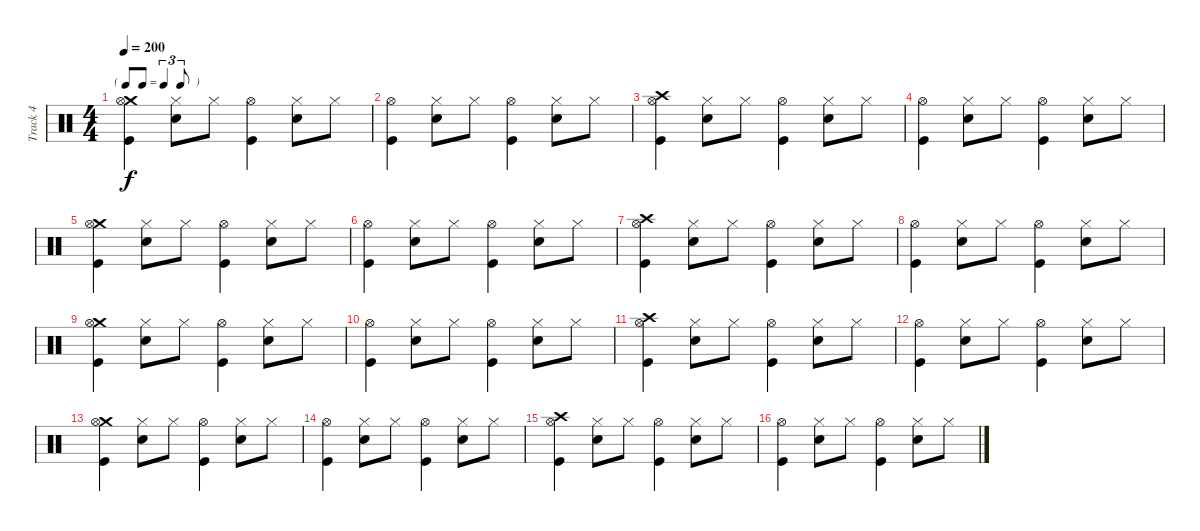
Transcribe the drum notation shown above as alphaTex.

\track ("Track 4" "Track 4") {instrument percussion}
\staff {score}
\articulation defaults
\ts (4 4)
\tf triplet8th
\tempo 200
\clef neutral
\ks c
("Crash medium (hit)" "Hi-Hat (open)" "Kick (hit)").4{dy f} ("Hi-Hat (closed)" "Electric Snare (hit)").8 "Hi-Hat (closed)".8 ("Hi-Hat (open)" "Kick (hit)").4 ("Hi-Hat (closed)" "Electric Snare (hit)").8 "Hi-Hat (closed)".8 |
("Hi-Hat (open)" "Kick (hit)").4 ("Hi-Hat (closed)" "Electric Snare (hit)").8 "Hi-Hat (closed)".8 ("Hi-Hat (open)" "Kick (hit)").4 ("Hi-Hat (closed)" "Electric Snare (hit)").8 "Hi-Hat (closed)".8 |
("Crash high (hit)" "Hi-Hat (open)" "Kick (hit)").4 ("Hi-Hat (closed)" "Electric Snare (hit)").8 "Hi-Hat (closed)".8 ("Hi-Hat (open)" "Kick (hit)").4 ("Hi-Hat (closed)" "Electric Snare (hit)").8 "Hi-Hat (closed)".8 |
("Hi-Hat (open)" "Kick (hit)").4 ("Hi-Hat (closed)" "Electric Snare (hit)").8 "Hi-Hat (closed)".8 ("Hi-Hat (open)" "Kick (hit)").4 ("Hi-Hat (closed)" "Electric Snare (hit)").8 "Hi-Hat (closed)".8 |
("Crash medium (hit)" "Hi-Hat (open)" "Kick (hit)").4 ("Hi-Hat (closed)" "Electric Snare (hit)").8 "Hi-Hat (closed)".8 ("Hi-Hat (open)" "Kick (hit)").4 ("Hi-Hat (closed)" "Electric Snare (hit)").8 "Hi-Hat (closed)".8 |
("Hi-Hat (open)" "Kick (hit)").4 ("Hi-Hat (closed)" "Electric Snare (hit)").8 "Hi-Hat (closed)".8 ("Hi-Hat (open)" "Kick (hit)").4 ("Hi-Hat (closed)" "Electric Snare (hit)").8 "Hi-Hat (closed)".8 |
("Crash high (hit)" "Hi-Hat (open)" "Kick (hit)").4 ("Hi-Hat (closed)" "Electric Snare (hit)").8 "Hi-Hat (closed)".8 ("Hi-Hat (open)" "Kick (hit)").4 ("Hi-Hat (closed)" "Electric Snare (hit)").8 "Hi-Hat (closed)".8 |
("Hi-Hat (open)" "Kick (hit)").4 ("Hi-Hat (closed)" "Electric Snare (hit)").8 "Hi-Hat (closed)".8 ("Hi-Hat (open)" "Kick (hit)").4 ("Hi-Hat (closed)" "Electric Snare (hit)").8 "Hi-Hat (closed)".8 |
("Crash medium (hit)" "Hi-Hat (open)" "Kick (hit)").4 ("Hi-Hat (closed)" "Electric Snare (hit)").8 "Hi-Hat (closed)".8 ("Hi-Hat (open)" "Kick (hit)").4 ("Hi-Hat (closed)" "Electric Snare (hit)").8 "Hi-Hat (closed)".8 |
("Hi-Hat (open)" "Kick (hit)").4 ("Hi-Hat (closed)" "Electric Snare (hit)").8 "Hi-Hat (closed)".8 ("Hi-Hat (open)" "Kick (hit)").4 ("Hi-Hat (closed)" "Electric Snare (hit)").8 "Hi-Hat (closed)".8 |
("Crash high (hit)" "Hi-Hat (open)" "Kick (hit)").4 ("Hi-Hat (closed)" "Electric Snare (hit)").8 "Hi-Hat (closed)".8 ("Hi-Hat (open)" "Kick (hit)").4 ("Hi-Hat (closed)" "Electric Snare (hit)").8 "Hi-Hat (closed)".8 |
("Hi-Hat (open)" "Kick (hit)").4 ("Hi-Hat (closed)" "Electric Snare (hit)").8 "Hi-Hat (closed)".8 ("Hi-Hat (open)" "Kick (hit)").4 ("Hi-Hat (closed)" "Electric Snare (hit)").8 "Hi-Hat (closed)".8 |
("Crash medium (hit)" "Hi-Hat (open)" "Kick (hit)").4 ("Hi-Hat (closed)" "Electric Snare (hit)").8 "Hi-Hat (closed)".8 ("Hi-Hat (open)" "Kick (hit)").4 ("Hi-Hat (closed)" "Electric Snare (hit)").8 "Hi-Hat (closed)".8 |
("Hi-Hat (open)" "Kick (hit)").4 ("Hi-Hat (closed)" "Electric Snare (hit)").8 "Hi-Hat (closed)".8 ("Hi-Hat (open)" "Kick (hit)").4 ("Hi-Hat (closed)" "Electric Snare (hit)").8 "Hi-Hat (closed)".8 |
("Crash high (hit)" "Hi-Hat (open)" "Kick (hit)").4 ("Hi-Hat (closed)" "Electric Snare (hit)").8 "Hi-Hat (closed)".8 ("Hi-Hat (open)" "Kick (hit)").4 ("Hi-Hat (closed)" "Electric Snare (hit)").8 "Hi-Hat (closed)".8 |
("Hi-Hat (open)" "Kick (hit)").4 ("Hi-Hat (closed)" "Electric Snare (hit)").8 "Hi-Hat (closed)".8 ("Hi-Hat (open)" "Kick (hit)").4 ("Hi-Hat (closed)" "Electric Snare (hit)").8 "Hi-Hat (closed)".8
